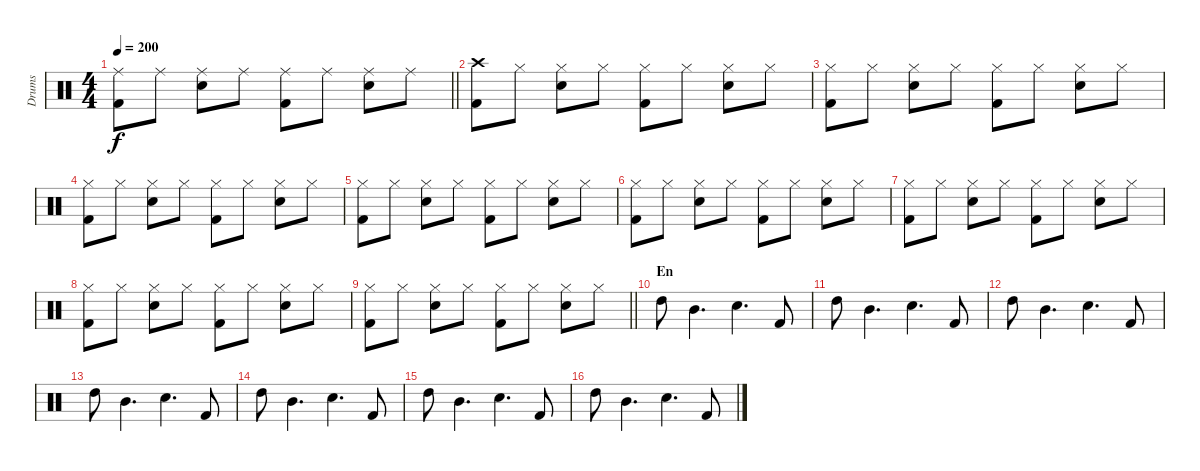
\track ("Drums" "Drums") {instrument percussion}
\staff {score}
\articulation defaults
\ts (4 4)
\tempo 200
\clef neutral
\barLineRight lightlight
\ks c
("Ride (middle)" "Kick (hit) 2").8{dy f} "Ride (middle)".8 ("Ride (middle)" "Snare (hit) 2").8 "Ride (middle)".8 ("Ride (middle)" "Kick (hit) 2").8 "Ride (middle)".8 ("Ride (middle)" "Snare (hit) 2").8 "Ride (middle)".8 |
("Crash high (hit)" "Kick (hit) 2").8 "Hi-Hat (closed)".8 ("Hi-Hat (closed)" "Snare (hit) 2").8 "Hi-Hat (closed)".8 ("Hi-Hat (closed)" "Kick (hit) 2").8 "Hi-Hat (closed)".8 ("Hi-Hat (closed)" "Snare (hit) 2").8 "Hi-Hat (closed)".8 |
("Hi-Hat (closed)" "Kick (hit) 2").8 "Hi-Hat (closed)".8 ("Hi-Hat (closed)" "Snare (hit) 2").8 "Hi-Hat (closed)".8 ("Hi-Hat (closed)" "Kick (hit) 2").8 "Hi-Hat (closed)".8 ("Hi-Hat (closed)" "Snare (hit) 2").8 "Hi-Hat (closed)".8 |
("Hi-Hat (closed)" "Kick (hit) 2").8 "Hi-Hat (closed)".8 ("Hi-Hat (closed)" "Snare (hit) 2").8 "Hi-Hat (closed)".8 ("Hi-Hat (closed)" "Kick (hit) 2").8 "Hi-Hat (closed)".8 ("Hi-Hat (closed)" "Snare (hit) 2").8 "Hi-Hat (closed)".8 |
("Hi-Hat (closed)" "Kick (hit) 2").8 "Hi-Hat (closed)".8 ("Hi-Hat (closed)" "Snare (hit) 2").8 "Hi-Hat (closed)".8 ("Hi-Hat (closed)" "Kick (hit) 2").8 "Hi-Hat (closed)".8 ("Hi-Hat (closed)" "Snare (hit) 2").8 "Hi-Hat (closed)".8 |
("Hi-Hat (closed)" "Kick (hit) 2").8 "Hi-Hat (closed)".8 ("Hi-Hat (closed)" "Snare (hit) 2").8 "Hi-Hat (closed)".8 ("Hi-Hat (closed)" "Kick (hit) 2").8 "Hi-Hat (closed)".8 ("Hi-Hat (closed)" "Snare (hit) 2").8 "Hi-Hat (closed)".8 |
("Hi-Hat (closed)" "Kick (hit) 2").8 "Hi-Hat (closed)".8 ("Hi-Hat (closed)" "Snare (hit) 2").8 "Hi-Hat (closed)".8 ("Hi-Hat (closed)" "Kick (hit) 2").8 "Hi-Hat (closed)".8 ("Hi-Hat (closed)" "Snare (hit) 2").8 "Hi-Hat (closed)".8 |
("Hi-Hat (closed)" "Kick (hit) 2").8 "Hi-Hat (closed)".8 ("Hi-Hat (closed)" "Snare (hit) 2").8 "Hi-Hat (closed)".8 ("Hi-Hat (closed)" "Kick (hit) 2").8 "Hi-Hat (closed)".8 ("Hi-Hat (closed)" "Snare (hit) 2").8 "Hi-Hat (closed)".8 |
\barLineRight lightlight
("Hi-Hat (closed)" "Kick (hit) 2").8 "Hi-Hat (closed)".8 ("Hi-Hat (closed)" "Snare (hit) 2").8 "Hi-Hat (closed)".8 ("Hi-Hat (closed)" "Kick (hit) 2").8 "Hi-Hat (closed)".8 ("Hi-Hat (closed)" "Snare (hit) 2").8 "Hi-Hat (closed)".8 |
\section ("" "En")
"High Tom (hit)".8 "Mid Tom (hit)".4{d} "Snare (hit) 2".4{d} "Kick (hit) 2".8 |
"High Tom (hit)".8 "Mid Tom (hit)".4{d} "Snare (hit) 2".4{d} "Kick (hit) 2".8 |
"High Tom (hit)".8 "Mid Tom (hit)".4{d} "Snare (hit) 2".4{d} "Kick (hit) 2".8 |
"High Tom (hit)".8 "Mid Tom (hit)".4{d} "Snare (hit) 2".4{d} "Kick (hit) 2".8 |
"High Tom (hit)".8 "Mid Tom (hit)".4{d} "Snare (hit) 2".4{d} "Kick (hit) 2".8 |
"High Tom (hit)".8 "Mid Tom (hit)".4{d} "Snare (hit) 2".4{d} "Kick (hit) 2".8 |
"High Tom (hit)".8 "Mid Tom (hit)".4{d} "Snare (hit) 2".4{d} "Kick (hit) 2".8
